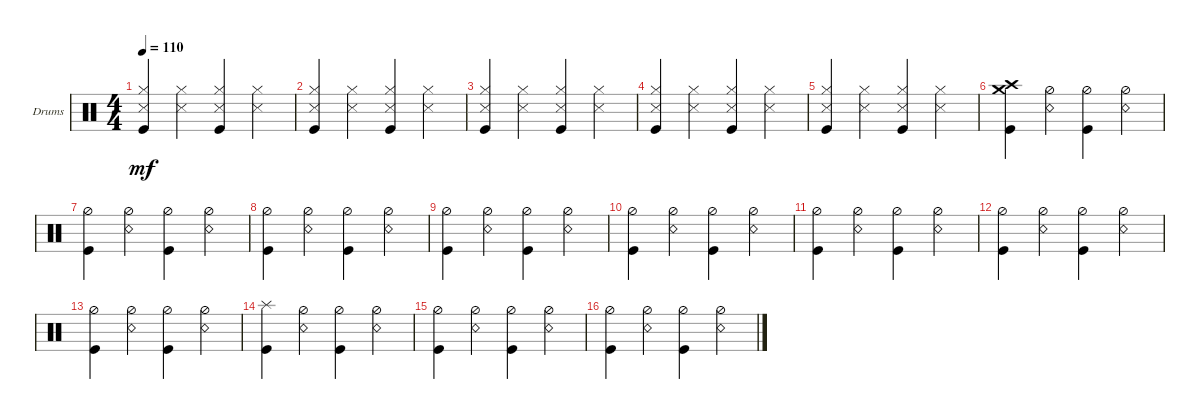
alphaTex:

\bracketExtendMode groupsimilarinstruments
\firstSystemTrackNameOrientation horizontal
\otherSystemsTrackNameOrientation horizontal
\track ("Drumkit" "Drums") {instrument percussion}
\staff {score}
\articulation defaults
\ts (4 4)
\tempo 110
\clef neutral
\ks c
("Kick (hit)" "Hi-Hat (closed)" "Snare (side stick) 3").4{dy mf} ("Snare (side stick) 3" "Hi-Hat (closed)").4 ("Kick (hit)" "Hi-Hat (closed)" "Snare (side stick) 3").4 ("Snare (side stick) 3" "Hi-Hat (closed)").4 |
("Kick (hit)" "Hi-Hat (closed)" "Snare (side stick) 3").4 ("Snare (side stick) 3" "Hi-Hat (closed)").4 ("Kick (hit)" "Hi-Hat (closed)" "Snare (side stick) 3").4 ("Snare (side stick) 3" "Hi-Hat (closed)").4 |
("Kick (hit)" "Hi-Hat (closed)" "Snare (side stick) 3").4 ("Snare (side stick) 3" "Hi-Hat (closed)").4 ("Kick (hit)" "Hi-Hat (closed)" "Snare (side stick) 3").4 ("Snare (side stick) 3" "Hi-Hat (closed)").4 |
("Kick (hit)" "Hi-Hat (closed)" "Snare (side stick) 3").4 ("Snare (side stick) 3" "Hi-Hat (closed)").4 ("Kick (hit)" "Hi-Hat (closed)" "Snare (side stick) 3").4 ("Snare (side stick) 3" "Hi-Hat (closed)").4 |
("Kick (hit)" "Hi-Hat (closed)" "Snare (side stick) 3").4 ("Snare (side stick) 3" "Hi-Hat (closed)").4 ("Kick (hit)" "Hi-Hat (closed)" "Snare (side stick) 3").4 ("Snare (side stick) 3" "Hi-Hat (closed)").4 |
("Kick (hit)" "Crash medium (hit)" "Crash high (hit)").4 ("Snare (rim shot)" "Hi-Hat (half)").4 ("Kick (hit)" "Hi-Hat (half)").4 ("Snare (rim shot)" "Hi-Hat (half)").4 |
("Kick (hit)" "Hi-Hat (half)").4 ("Snare (rim shot)" "Hi-Hat (half)").4 ("Kick (hit)" "Hi-Hat (half)").4 ("Snare (rim shot)" "Hi-Hat (half)").4 |
("Kick (hit)" "Hi-Hat (half)").4 ("Snare (rim shot)" "Hi-Hat (half)").4 ("Kick (hit)" "Hi-Hat (half)").4 ("Snare (rim shot)" "Hi-Hat (half)").4 |
("Kick (hit)" "Hi-Hat (half)").4 ("Snare (rim shot)" "Hi-Hat (half)").4 ("Kick (hit)" "Hi-Hat (half)").4 ("Snare (rim shot)" "Hi-Hat (half)").4 |
("Kick (hit)" "Hi-Hat (half)").4 ("Snare (rim shot)" "Hi-Hat (half)").4 ("Kick (hit)" "Hi-Hat (half)").4 ("Snare (rim shot)" "Hi-Hat (half)").4 |
("Kick (hit)" "Hi-Hat (half)").4 ("Snare (rim shot)" "Hi-Hat (half)").4 ("Kick (hit)" "Hi-Hat (half)").4 ("Snare (rim shot)" "Hi-Hat (half)").4 |
("Kick (hit)" "Hi-Hat (half)").4 ("Snare (rim shot)" "Hi-Hat (half)").4 ("Kick (hit)" "Hi-Hat (half)").4 ("Snare (rim shot)" "Hi-Hat (half)").4 |
("Kick (hit)" "Hi-Hat (half)").4 ("Snare (rim shot)" "Hi-Hat (half)").4 ("Kick (hit)" "Hi-Hat (half)").4 ("Snare (rim shot)" "Hi-Hat (half)").4 |
("Kick (hit)" "Splash (hit)").4 ("Snare (rim shot)" "Hi-Hat (half)").4 ("Kick (hit)" "Hi-Hat (half)").4 ("Snare (rim shot)" "Hi-Hat (half)").4 |
("Kick (hit)" "Hi-Hat (half)").4 ("Snare (rim shot)" "Hi-Hat (half)").4 ("Kick (hit)" "Hi-Hat (half)").4 ("Snare (rim shot)" "Hi-Hat (half)").4 |
("Kick (hit)" "Hi-Hat (half)").4 ("Snare (rim shot)" "Hi-Hat (half)").4 ("Kick (hit)" "Hi-Hat (half)").4 ("Snare (rim shot)" "Hi-Hat (half)").4
